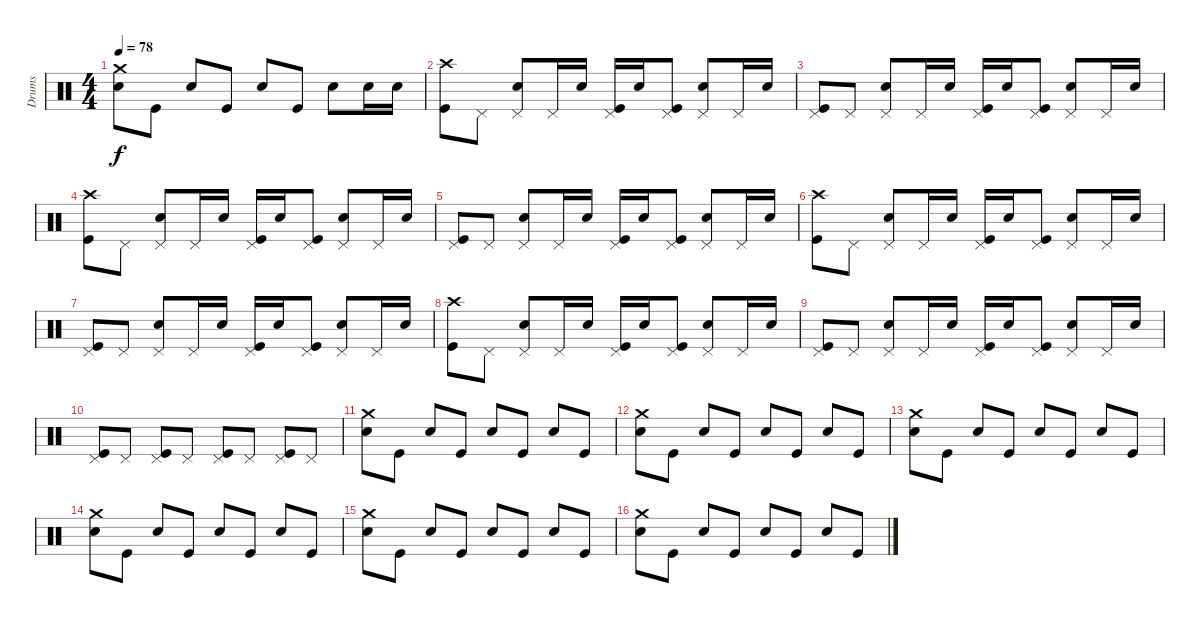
\track ("Drums" "Drums") {instrument percussion}
\staff {score}
\articulation defaults
\ts (4 4)
\tempo 78
\clef neutral
\ks c
("Crash medium (hit)" "Electric Snare (hit)").8{dy f} "Kick (hit)".8 "Electric Snare (hit)".8 "Kick (hit)".8 "Electric Snare (hit)".8 "Kick (hit)".8 "Electric Snare (hit)".8 "Electric Snare (hit)".16 "Electric Snare (hit)".16 |
("Crash high (hit)" "Kick (hit)").8 "Pedal Hi-Hat (hit)".8 ("Pedal Hi-Hat (hit)" "Electric Snare (hit)").8 "Pedal Hi-Hat (hit)".16 "Electric Snare (hit)".16 ("Pedal Hi-Hat (hit)" "Kick (hit)").16 "Electric Snare (hit)".16 ("Pedal Hi-Hat (hit)" "Kick (hit)").8 ("Pedal Hi-Hat (hit)" "Electric Snare (hit)").8 "Pedal Hi-Hat (hit)".16 "Electric Snare (hit)".16 |
("Pedal Hi-Hat (hit)" "Kick (hit)").8 "Pedal Hi-Hat (hit)".8 ("Pedal Hi-Hat (hit)" "Electric Snare (hit)").8 "Pedal Hi-Hat (hit)".16 "Electric Snare (hit)".16 ("Pedal Hi-Hat (hit)" "Kick (hit)").16 "Electric Snare (hit)".16 ("Pedal Hi-Hat (hit)" "Kick (hit)").8 ("Pedal Hi-Hat (hit)" "Electric Snare (hit)").8 "Pedal Hi-Hat (hit)".16 "Electric Snare (hit)".16 |
("Crash high (hit)" "Kick (hit)").8 "Pedal Hi-Hat (hit)".8 ("Pedal Hi-Hat (hit)" "Electric Snare (hit)").8 "Pedal Hi-Hat (hit)".16 "Electric Snare (hit)".16 ("Pedal Hi-Hat (hit)" "Kick (hit)").16 "Electric Snare (hit)".16 ("Pedal Hi-Hat (hit)" "Kick (hit)").8 ("Pedal Hi-Hat (hit)" "Electric Snare (hit)").8 "Pedal Hi-Hat (hit)".16 "Electric Snare (hit)".16 |
("Pedal Hi-Hat (hit)" "Kick (hit)").8 "Pedal Hi-Hat (hit)".8 ("Pedal Hi-Hat (hit)" "Electric Snare (hit)").8 "Pedal Hi-Hat (hit)".16 "Electric Snare (hit)".16 ("Pedal Hi-Hat (hit)" "Kick (hit)").16 "Electric Snare (hit)".16 ("Pedal Hi-Hat (hit)" "Kick (hit)").8 ("Pedal Hi-Hat (hit)" "Electric Snare (hit)").8 "Pedal Hi-Hat (hit)".16 "Electric Snare (hit)".16 |
("Crash high (hit)" "Kick (hit)").8 "Pedal Hi-Hat (hit)".8 ("Pedal Hi-Hat (hit)" "Electric Snare (hit)").8 "Pedal Hi-Hat (hit)".16 "Electric Snare (hit)".16 ("Pedal Hi-Hat (hit)" "Kick (hit)").16 "Electric Snare (hit)".16 ("Pedal Hi-Hat (hit)" "Kick (hit)").8 ("Pedal Hi-Hat (hit)" "Electric Snare (hit)").8 "Pedal Hi-Hat (hit)".16 "Electric Snare (hit)".16 |
("Pedal Hi-Hat (hit)" "Kick (hit)").8 "Pedal Hi-Hat (hit)".8 ("Pedal Hi-Hat (hit)" "Electric Snare (hit)").8 "Pedal Hi-Hat (hit)".16 "Electric Snare (hit)".16 ("Pedal Hi-Hat (hit)" "Kick (hit)").16 "Electric Snare (hit)".16 ("Pedal Hi-Hat (hit)" "Kick (hit)").8 ("Pedal Hi-Hat (hit)" "Electric Snare (hit)").8 "Pedal Hi-Hat (hit)".16 "Electric Snare (hit)".16 |
("Crash high (hit)" "Kick (hit)").8 "Pedal Hi-Hat (hit)".8 ("Pedal Hi-Hat (hit)" "Electric Snare (hit)").8 "Pedal Hi-Hat (hit)".16 "Electric Snare (hit)".16 ("Pedal Hi-Hat (hit)" "Kick (hit)").16 "Electric Snare (hit)".16 ("Pedal Hi-Hat (hit)" "Kick (hit)").8 ("Pedal Hi-Hat (hit)" "Electric Snare (hit)").8 "Pedal Hi-Hat (hit)".16 "Electric Snare (hit)".16 |
("Pedal Hi-Hat (hit)" "Kick (hit)").8 "Pedal Hi-Hat (hit)".8 ("Pedal Hi-Hat (hit)" "Electric Snare (hit)").8 "Pedal Hi-Hat (hit)".16 "Electric Snare (hit)".16 ("Pedal Hi-Hat (hit)" "Kick (hit)").16 "Electric Snare (hit)".16 ("Pedal Hi-Hat (hit)" "Kick (hit)").8 ("Pedal Hi-Hat (hit)" "Electric Snare (hit)").8 "Pedal Hi-Hat (hit)".16 "Electric Snare (hit)".16 |
("Pedal Hi-Hat (hit)" "Kick (hit)").8 "Pedal Hi-Hat (hit)".8 ("Pedal Hi-Hat (hit)" "Kick (hit)").8 "Pedal Hi-Hat (hit)".8 ("Pedal Hi-Hat (hit)" "Kick (hit)").8 "Pedal Hi-Hat (hit)".8 ("Pedal Hi-Hat (hit)" "Kick (hit)").8 "Pedal Hi-Hat (hit)".8 |
("Crash medium (hit)" "Electric Snare (hit)").8 "Kick (hit)".8 "Electric Snare (hit)".8 "Kick (hit)".8 "Electric Snare (hit)".8 "Kick (hit)".8 "Electric Snare (hit)".8 "Kick (hit)".8 |
("Crash medium (hit)" "Electric Snare (hit)").8 "Kick (hit)".8 "Electric Snare (hit)".8 "Kick (hit)".8 "Electric Snare (hit)".8 "Kick (hit)".8 "Electric Snare (hit)".8 "Kick (hit)".8 |
("Crash medium (hit)" "Electric Snare (hit)").8 "Kick (hit)".8 "Electric Snare (hit)".8 "Kick (hit)".8 "Electric Snare (hit)".8 "Kick (hit)".8 "Electric Snare (hit)".8 "Kick (hit)".8 |
("Crash medium (hit)" "Electric Snare (hit)").8 "Kick (hit)".8 "Electric Snare (hit)".8 "Kick (hit)".8 "Electric Snare (hit)".8 "Kick (hit)".8 "Electric Snare (hit)".8 "Kick (hit)".8 |
("Crash medium (hit)" "Electric Snare (hit)").8 "Kick (hit)".8 "Electric Snare (hit)".8 "Kick (hit)".8 "Electric Snare (hit)".8 "Kick (hit)".8 "Electric Snare (hit)".8 "Kick (hit)".8 |
("Crash medium (hit)" "Electric Snare (hit)").8 "Kick (hit)".8 "Electric Snare (hit)".8 "Kick (hit)".8 "Electric Snare (hit)".8 "Kick (hit)".8 "Electric Snare (hit)".8 "Kick (hit)".8
